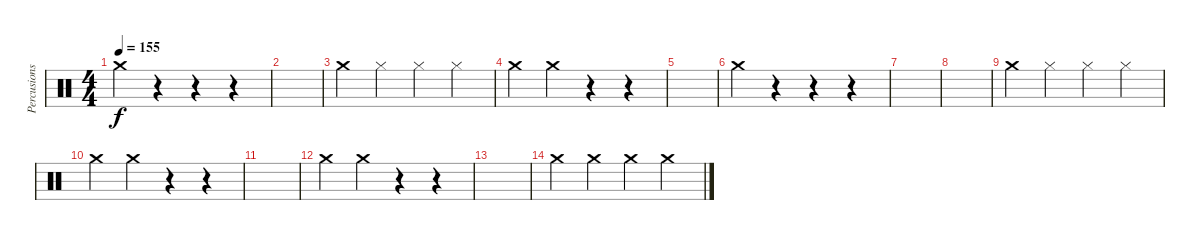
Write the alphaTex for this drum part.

\track ("Percusions (discs)" "Percusions") {instrument percussion}
\staff {score}
\articulation defaults
\ts (4 4)
\tempo 155
\clef neutral
\ks c "Crash medium (hit)".4{dy f}
r.4 r.4 r.4 |
|
"Crash medium (hit)".4 "Hi-Hat (closed)".4 "Hi-Hat (closed)".4 "Hi-Hat (closed)".4 |
"Crash medium (hit)".4 "Crash medium (hit)".4 r.4 r.4 |
|
"Crash medium (hit)".4 r.4 r.4 r.4 |
|
|
"Crash medium (hit)".4 "Hi-Hat (closed)".4 "Hi-Hat (closed)".4 "Hi-Hat (closed)".4 |
"Crash medium (hit)".4 "Crash medium (hit)".4 r.4 r.4 |
|
"Crash medium (hit)".4 "Crash medium (hit)".4 r.4 r.4 |
|
"Crash medium (hit)".4 "Crash medium (hit)".4 "Crash medium (hit)".4 "Crash medium (hit)".4
